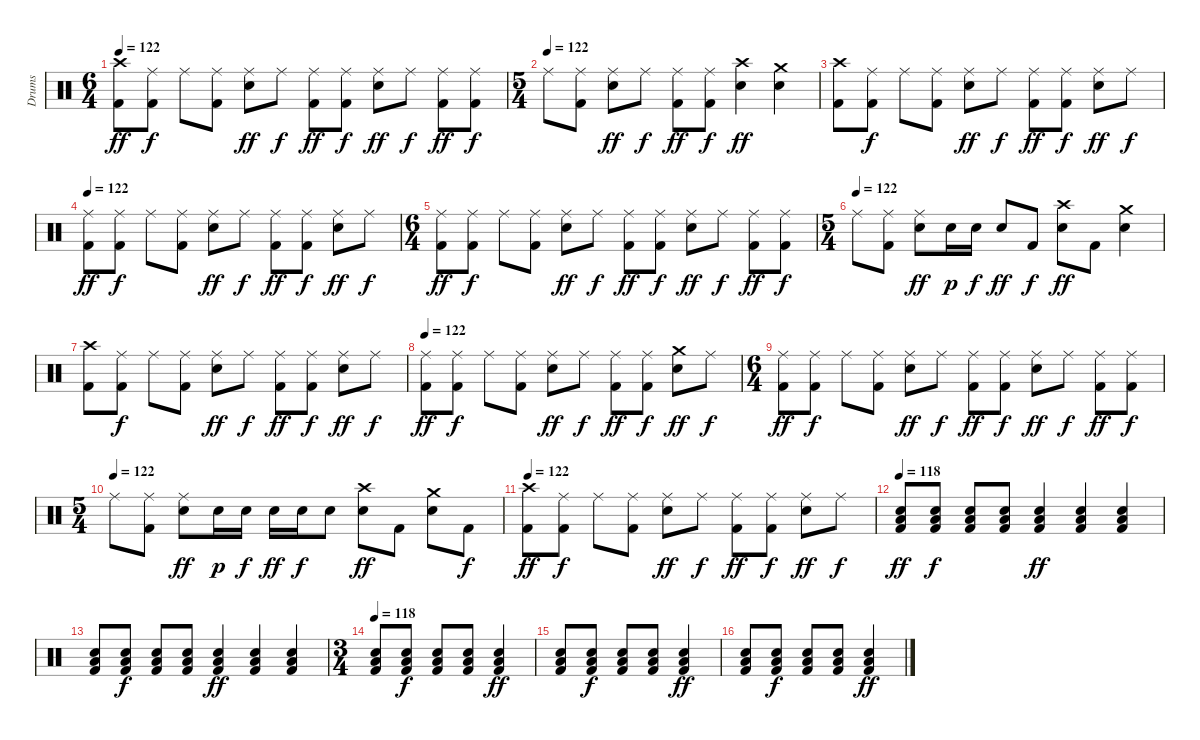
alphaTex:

\track ("Drums" "Drums") {instrument percussion}
\staff {score}
\articulation defaults
\ts (6 4)
\tempo 122
\clef neutral
\ks c
("Crash high (hit)" "Kick (hit) 2").8{dy ff} ("Ride (middle)" "Kick (hit) 2").8{dy f} "Ride (middle)".8 ("Ride (middle)" "Kick (hit) 2").8 ("Electric Snare (hit)" "Ride (middle)").8{dy ff} "Ride (middle)".8{dy f} ("Kick (hit) 2" "Ride (middle)").8{dy ff} ("Ride (middle)" "Kick (hit) 2").8{dy f} ("Ride (middle)" "Electric Snare (hit)").8{dy ff} "Ride (middle)".8{dy f} ("Ride (middle)" "Kick (hit) 2").8{dy ff} ("Ride (middle)" "Kick (hit) 2").8{dy f} |
\ts (5 4)
\tempo (122)
"Ride (middle)".8 ("Ride (middle)" "Kick (hit) 2").8 ("Electric Snare (hit)" "Ride (middle)").8{dy ff} "Ride (middle)".8{dy f} ("Kick (hit) 2" "Ride (middle)").8{dy ff} ("Ride (middle)" "Kick (hit) 2").8{dy f} ("Crash high (hit)" "Electric Snare (hit)").4{dy ff} ("Crash medium (hit)" "Electric Snare (hit)").4 |
("Crash high (hit)" "Kick (hit) 2").8 ("Ride (middle)" "Kick (hit) 2").8{dy f} "Ride (middle)".8 ("Ride (middle)" "Kick (hit) 2").8 ("Electric Snare (hit)" "Ride (middle)").8{dy ff} "Ride (middle)".8{dy f} ("Kick (hit) 2" "Ride (middle)").8{dy ff} ("Ride (middle)" "Kick (hit) 2").8{dy f} ("Ride (middle)" "Electric Snare (hit)").8{dy ff} "Ride (middle)".8{dy f} |
\tempo 122
("Ride (middle)" "Kick (hit) 2").8{dy ff} ("Ride (middle)" "Kick (hit) 2").8{dy f} "Ride (middle)".8 ("Ride (middle)" "Kick (hit) 2").8 ("Electric Snare (hit)" "Ride (middle)").8{dy ff} "Ride (middle)".8{dy f} ("Kick (hit) 2" "Ride (middle)").8{dy ff} ("Ride (middle)" "Kick (hit) 2").8{dy f} ("Ride (middle)" "Electric Snare (hit)").8{dy ff} "Ride (middle)".8{dy f} |
\ts (6 4)
("Ride (middle)" "Kick (hit) 2").8{dy ff} ("Ride (middle)" "Kick (hit) 2").8{dy f} "Ride (middle)".8 ("Ride (middle)" "Kick (hit) 2").8 ("Electric Snare (hit)" "Ride (middle)").8{dy ff} "Ride (middle)".8{dy f} ("Kick (hit) 2" "Ride (middle)").8{dy ff} ("Ride (middle)" "Kick (hit) 2").8{dy f} ("Ride (middle)" "Electric Snare (hit)").8{dy ff} "Ride (middle)".8{dy f} ("Ride (middle)" "Kick (hit) 2").8{dy ff} ("Ride (middle)" "Kick (hit) 2").8{dy f} |
\ts (5 4)
\tempo (122)
"Ride (middle)".8 ("Ride (middle)" "Kick (hit) 2").8 ("Electric Snare (hit)" "Ride (middle)").8{dy ff} "Electric Snare (hit)".16{dy p} "Electric Snare (hit)".16{dy f} "Electric Snare (hit)".8{dy ff} "Kick (hit) 2".8{dy f} ("Crash high (hit)" "Electric Snare (hit)").8{dy ff} "Kick (hit) 2".8 ("Crash medium (hit)" "Electric Snare (hit)").4 |
("Crash high (hit)" "Kick (hit) 2").8 ("Ride (middle)" "Kick (hit) 2").8{dy f} "Ride (middle)".8 ("Ride (middle)" "Kick (hit) 2").8 ("Electric Snare (hit)" "Ride (middle)").8{dy ff} "Ride (middle)".8{dy f} ("Kick (hit) 2" "Ride (middle)").8{dy ff} ("Ride (middle)" "Kick (hit) 2").8{dy f} ("Ride (middle)" "Electric Snare (hit)").8{dy ff} "Ride (middle)".8{dy f} |
\tempo 122
("Ride (middle)" "Kick (hit) 2").8{dy ff} ("Ride (middle)" "Kick (hit) 2").8{dy f} "Ride (middle)".8 ("Ride (middle)" "Kick (hit) 2").8 ("Electric Snare (hit)" "Ride (middle)").8{dy ff} "Ride (middle)".8{dy f} ("Kick (hit) 2" "Ride (middle)").8{dy ff} ("Ride (middle)" "Kick (hit) 2").8{dy f} ("Crash medium (hit)" "Electric Snare (hit)").8{dy ff} "Ride (middle)".8{dy f} |
\ts (6 4)
("Ride (middle)" "Kick (hit) 2").8{dy ff} ("Ride (middle)" "Kick (hit) 2").8{dy f} "Ride (middle)".8 ("Ride (middle)" "Kick (hit) 2").8 ("Electric Snare (hit)" "Ride (middle)").8{dy ff} "Ride (middle)".8{dy f} ("Kick (hit) 2" "Ride (middle)").8{dy ff} ("Ride (middle)" "Kick (hit) 2").8{dy f} ("Ride (middle)" "Electric Snare (hit)").8{dy ff} "Ride (middle)".8{dy f} ("Ride (middle)" "Kick (hit) 2").8{dy ff} ("Ride (middle)" "Kick (hit) 2").8{dy f} |
\ts (5 4)
\tempo (122)
"Ride (middle)".8 ("Ride (middle)" "Kick (hit) 2").8 ("Electric Snare (hit)" "Ride (middle)").8{dy ff} "Electric Snare (hit)".16{dy p} "Electric Snare (hit)".16{dy f} "Electric Snare (hit)".16{dy ff} "Electric Snare (hit)".16{dy f} "Electric Snare (hit)".8 ("Crash high (hit)" "Electric Snare (hit)").8{dy ff} "Kick (hit) 2".8 ("Crash medium (hit)" "Electric Snare (hit)").8 "Kick (hit) 2".8{dy f} |
\tempo 122
("Crash high (hit)" "Kick (hit) 2").8{dy ff} ("Ride (middle)" "Kick (hit) 2").8{dy f} "Ride (middle)".8 ("Ride (middle)" "Kick (hit) 2").8 ("Electric Snare (hit)" "Ride (middle)").8{dy ff} "Ride (middle)".8{dy f} ("Kick (hit) 2" "Ride (middle)").8{dy ff} ("Ride (middle)" "Kick (hit) 2").8{dy f} ("Ride (middle)" "Electric Snare (hit)").8{dy ff} "Ride (middle)".8{dy f} |
\tempo 118
("Low Floor Tom (hit)" "Electric Snare (hit)" "Kick (hit) 2").8{dy ff} ("Low Floor Tom (hit)" "Electric Snare (hit)" "Kick (hit) 2").8{dy f} ("Low Floor Tom (hit)" "Kick (hit) 2" "Electric Snare (hit)").8 ("Low Floor Tom (hit)" "Electric Snare (hit)" "Kick (hit) 2").8 ("Low Floor Tom (hit)" "Electric Snare (hit)" "Kick (hit) 2").4{dy ff} ("Low Floor Tom (hit)" "Kick (hit) 2" "Electric Snare (hit)").4 ("Low Floor Tom (hit)" "Electric Snare (hit)" "Kick (hit) 2").4 |
("Low Floor Tom (hit)" "Electric Snare (hit)" "Kick (hit) 2").8 ("Low Floor Tom (hit)" "Electric Snare (hit)" "Kick (hit) 2").8{dy f} ("Low Floor Tom (hit)" "Kick (hit) 2" "Electric Snare (hit)").8 ("Low Floor Tom (hit)" "Electric Snare (hit)" "Kick (hit) 2").8 ("Low Floor Tom (hit)" "Electric Snare (hit)" "Kick (hit) 2").4{dy ff} ("Low Floor Tom (hit)" "Kick (hit) 2" "Electric Snare (hit)").4 ("Low Floor Tom (hit)" "Electric Snare (hit)" "Kick (hit) 2").4 |
\ts (3 4)
\tempo 118
("Low Floor Tom (hit)" "Electric Snare (hit)" "Kick (hit) 2").8 ("Low Floor Tom (hit)" "Electric Snare (hit)" "Kick (hit) 2").8{dy f} ("Low Floor Tom (hit)" "Kick (hit) 2" "Electric Snare (hit)").8 ("Low Floor Tom (hit)" "Electric Snare (hit)" "Kick (hit) 2").8 ("Low Floor Tom (hit)" "Electric Snare (hit)" "Kick (hit) 2").4{dy ff} |
("Low Floor Tom (hit)" "Electric Snare (hit)" "Kick (hit) 2").8 ("Low Floor Tom (hit)" "Electric Snare (hit)" "Kick (hit) 2").8{dy f} ("Low Floor Tom (hit)" "Kick (hit) 2" "Electric Snare (hit)").8 ("Low Floor Tom (hit)" "Electric Snare (hit)" "Kick (hit) 2").8 ("Low Floor Tom (hit)" "Electric Snare (hit)" "Kick (hit) 2").4{dy ff} |
("Low Floor Tom (hit)" "Electric Snare (hit)" "Kick (hit) 2").8 ("Low Floor Tom (hit)" "Electric Snare (hit)" "Kick (hit) 2").8{dy f} ("Low Floor Tom (hit)" "Kick (hit) 2" "Electric Snare (hit)").8 ("Low Floor Tom (hit)" "Electric Snare (hit)" "Kick (hit) 2").8 ("Low Floor Tom (hit)" "Electric Snare (hit)" "Kick (hit) 2").4{dy ff}
